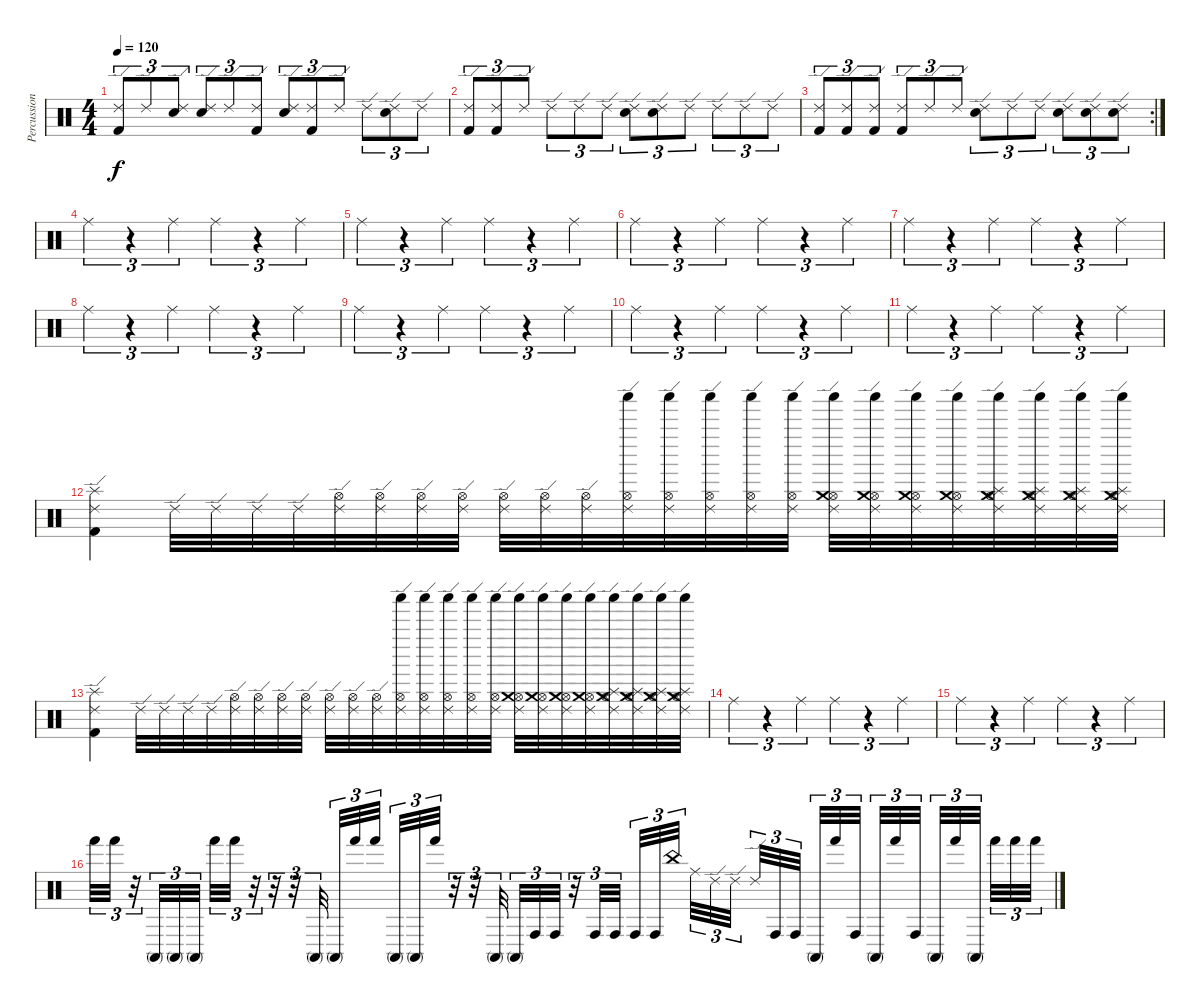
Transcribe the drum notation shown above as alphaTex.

\track ("Percussion" "Percussion") {instrument percussion}
\staff {score}
\articulation defaults
\ts (4 4)
\tempo 120
\clef neutral
\ks c
("Kick (hit) 2" "Ride (edge) 2").8{tu (3 2) dy f} "Ride (edge) 2".8{tu (3 2)} ("Snare (hit) 2" "Ride (edge) 2").8{tu (3 2)} ("Snare (hit) 2" "Ride (edge) 2").8{tu (3 2)} "Ride (edge) 2".8{tu (3 2)} ("Kick (hit) 2" "Ride (edge) 2").8{tu (3 2)} ("Snare (hit) 2" "Ride (edge) 2").8{tu (3 2)} ("Kick (hit) 2" "Ride (edge) 2").8{tu (3 2)} "Ride (edge) 2".8{tu (3 2)} "Ride (edge) 2".8{tu (3 2)} ("Snare (hit) 2" "Ride (edge) 2").8{tu (3 2)} "Ride (edge) 2".8{tu (3 2)} |
("Kick (hit) 2" "Ride (edge) 2").8{tu (3 2)} ("Kick (hit) 2" "Ride (edge) 2").8{tu (3 2)} "Ride (edge) 2".8{tu (3 2)} "Ride (edge) 2".8{tu (3 2)} "Ride (edge) 2".8{tu (3 2)} "Ride (edge) 2".8{tu (3 2)} ("Snare (hit) 2" "Ride (edge) 2").8{tu (3 2)} ("Snare (hit) 2" "Ride (edge) 2").8{tu (3 2)} "Ride (edge) 2".8{tu (3 2)} "Ride (edge) 2".8{tu (3 2)} "Ride (edge) 2".8{tu (3 2)} "Ride (edge) 2".8{tu (3 2)} |
\rc 2
("Kick (hit) 2" "Ride (edge) 2").8{tu (3 2)} ("Kick (hit) 2" "Ride (edge) 2").8{tu (3 2)} ("Kick (hit) 2" "Ride (edge) 2").8{tu (3 2)} ("Kick (hit) 2" "Ride (edge) 2").8{tu (3 2)} "Ride (edge) 2".8{tu (3 2)} "Ride (edge) 2".8{tu (3 2)} ("Snare (hit) 2" "Ride (edge) 2").8{tu (3 2)} "Ride (edge) 2".8{tu (3 2)} "Ride (edge) 2".8{tu (3 2)} ("Snare (hit) 2" "Ride (edge) 2").8{tu (3 2)} ("Snare (hit) 2" "Ride (edge) 2").8{tu (3 2)} ("Snare (hit) 2" "Ride (edge) 2").8{tu (3 2)} |
"Ride (middle)".4{tu (3 2)} r.4{tu (3 2)} "Ride (middle)".4{tu (3 2)} "Ride (middle)".4{tu (3 2)} r.4{tu (3 2)} "Ride (middle)".4{tu (3 2)} |
"Ride (middle)".4{tu (3 2)} r.4{tu (3 2)} "Ride (middle)".4{tu (3 2)} "Ride (middle)".4{tu (3 2)} r.4{tu (3 2)} "Ride (middle)".4{tu (3 2)} |
"Ride (middle)".4{tu (3 2)} r.4{tu (3 2)} "Ride (middle)".4{tu (3 2)} "Ride (middle)".4{tu (3 2)} r.4{tu (3 2)} "Ride (middle)".4{tu (3 2)} |
"Ride (middle)".4{tu (3 2)} r.4{tu (3 2)} "Ride (middle)".4{tu (3 2)} "Ride (middle)".4{tu (3 2)} r.4{tu (3 2)} "Ride (middle)".4{tu (3 2)} |
"Ride (middle)".4{tu (3 2)} r.4{tu (3 2)} "Ride (middle)".4{tu (3 2)} "Ride (middle)".4{tu (3 2)} r.4{tu (3 2)} "Ride (middle)".4{tu (3 2)} |
"Ride (middle)".4{tu (3 2)} r.4{tu (3 2)} "Ride (middle)".4{tu (3 2)} "Ride (middle)".4{tu (3 2)} r.4{tu (3 2)} "Ride (middle)".4{tu (3 2)} |
"Ride (middle)".4{tu (3 2)} r.4{tu (3 2)} "Ride (middle)".4{tu (3 2)} "Ride (middle)".4{tu (3 2)} r.4{tu (3 2)} "Ride (middle)".4{tu (3 2)} |
"Ride (middle)".4{tu (3 2)} r.4{tu (3 2)} "Ride (middle)".4{tu (3 2)} "Ride (middle)".4{tu (3 2)} r.4{tu (3 2)} "Ride (middle)".4{tu (3 2)} |
("Ride (edge) 2" "Splash (hit)" "Kick (hit) 2").4 "Ride (edge) 2".32 "Ride (edge) 2".32 "Ride (edge) 2".32 "Ride (edge) 2".32 ("Hi-Hat (open)" "Ride (edge) 2").32 ("Hi-Hat (open)" "Ride (edge) 2").32 ("Hi-Hat (open)" "Ride (edge) 2").32 ("Hi-Hat (open)" "Ride (edge) 2").32 ("Hi-Hat (open)" "Ride (edge) 2").32 ("Hi-Hat (open)" "Ride (edge) 2").32 ("Hi-Hat (open)" "Ride (edge) 2").32 ("Shaker (hit)" "Hi-Hat (open)" "Ride (edge) 2").32 ("Shaker (hit)" "Hi-Hat (open)" "Ride (edge) 2").32 ("Shaker (hit)" "Hi-Hat (open)" "Ride (edge) 2").32 ("Shaker (hit)" "Hi-Hat (open)" "Ride (edge) 2").32 ("Shaker (hit)" "Hi-Hat (open)" "Ride (edge) 2").32 ("Shaker (hit)" "Hi-Hat (open)" "Ride (edge) 2" "Crash medium (hit)").32 ("Shaker (hit)" "Hi-Hat (open)" "Ride (edge) 2" "Crash medium (hit)").32 ("Shaker (hit)" "Hi-Hat (open)" "Ride (edge) 2" "Crash medium (hit)").32 ("Shaker (hit)" "Hi-Hat (open)" "Ride (edge) 2" "Crash medium (hit)").32 ("Shaker (hit)" "Hi-Hat (open)" "Ride (edge) 2" "Crash medium (hit)" "Splash (hit)").32 ("Shaker (hit)" "Hi-Hat (open)" "Ride (edge) 2" "Crash medium (hit)" "Splash (hit)").32 ("Shaker (hit)" "Hi-Hat (open)" "Ride (edge) 2" "Crash medium (hit)" "Splash (hit)").32 ("Shaker (hit)" "Hi-Hat (open)" "Ride (edge) 2" "Crash medium (hit)" "Splash (hit)").32 |
("Ride (edge) 2" "Splash (hit)" "Kick (hit) 2").4 "Ride (edge) 2".32 "Ride (edge) 2".32 "Ride (edge) 2".32 "Ride (edge) 2".32 ("Hi-Hat (open)" "Ride (edge) 2").32 ("Hi-Hat (open)" "Ride (edge) 2").32 ("Hi-Hat (open)" "Ride (edge) 2").32 ("Hi-Hat (open)" "Ride (edge) 2").32 ("Hi-Hat (open)" "Ride (edge) 2").32 ("Hi-Hat (open)" "Ride (edge) 2").32 ("Hi-Hat (open)" "Ride (edge) 2").32 ("Shaker (hit)" "Hi-Hat (open)" "Ride (edge) 2").32 ("Shaker (hit)" "Hi-Hat (open)" "Ride (edge) 2").32 ("Shaker (hit)" "Hi-Hat (open)" "Ride (edge) 2").32 ("Shaker (hit)" "Hi-Hat (open)" "Ride (edge) 2").32 ("Shaker (hit)" "Hi-Hat (open)" "Ride (edge) 2").32 ("Shaker (hit)" "Hi-Hat (open)" "Ride (edge) 2" "Crash medium (hit)").32 ("Shaker (hit)" "Hi-Hat (open)" "Ride (edge) 2" "Crash medium (hit)").32 ("Shaker (hit)" "Hi-Hat (open)" "Ride (edge) 2" "Crash medium (hit)").32 ("Shaker (hit)" "Hi-Hat (open)" "Ride (edge) 2" "Crash medium (hit)").32 ("Shaker (hit)" "Hi-Hat (open)" "Ride (edge) 2" "Crash medium (hit)" "Splash (hit)").32 ("Shaker (hit)" "Hi-Hat (open)" "Ride (edge) 2" "Crash medium (hit)" "Splash (hit)").32 ("Shaker (hit)" "Hi-Hat (open)" "Ride (edge) 2" "Crash medium (hit)" "Splash (hit)").32 ("Shaker (hit)" "Hi-Hat (open)" "Ride (edge) 2" "Crash medium (hit)" "Splash (hit)").32 |
"Ride (middle)".4{tu (3 2)} r.4{tu (3 2)} "Ride (middle)".4{tu (3 2)} "Ride (middle)".4{tu (3 2)} r.4{tu (3 2)} "Ride (middle)".4{tu (3 2)} |
"Ride (middle)".4{tu (3 2)} r.4{tu (3 2)} "Ride (middle)".4{tu (3 2)} "Ride (middle)".4{tu (3 2)} r.4{tu (3 2)} "Ride (middle)".4{tu (3 2)} |
"Hand (hit)".32{tu (3 2)} "Hand (hit)".32{tu (3 2)} r.32{tu (3 2)} "Conga high (mute)".32{tu (3 2)} "Conga high (mute)".32{tu (3 2)} "Conga high (mute)".32{tu (3 2) beam splitsecondary} "Hand (hit)".32{tu (3 2)} "Hand (hit)".32{tu (3 2)} r.32{tu (3 2)} r.32{tu (3 2)} r.32{tu (3 2)} "Conga high (mute)".32{tu (3 2)} "Conga high (mute)".32{tu (3 2)} "Hand (hit)".32{tu (3 2)} "Hand (hit)".32{tu (3 2) beam splitsecondary} "Conga high (mute)".32{tu (3 2)} "Conga high (mute)".32{tu (3 2)} "Hand (hit)".32{tu (3 2)} r.32{tu (3 2)} r.32{tu (3 2)} "Conga high (mute)".32{tu (3 2) beam splitsecondary} "Conga high (mute)".32{tu (3 2)} "Conga high (hit)".32{tu (3 2)} "Conga high (hit)".32{tu (3 2)} r.32{tu (3 2)} "Conga high (hit)".32{tu (3 2)} "Conga high (hit)".32{tu (3 2) beam splitsecondary} "Conga high (hit)".32{tu (3 2)} "Conga high (hit)".32{tu (3 2)} "China (hit)".32{tu (3 2) beam splitsecondary} "Ride (middle)".32{tu (3 2)} "Ride (edge) 2".32{tu (3 2)} "Ride (edge) 2".32{tu (3 2) beam splitsecondary} "Ride (edge) 2".32{tu (3 2)} "Conga high (hit)".32{tu (3 2)} "Conga high (hit)".32{tu (3 2)} "Conga high (mute)".32{tu (3 2)} "Hand (hit)".32{tu (3 2)} "Conga high (hit)".32{tu (3 2) beam splitsecondary} "Conga high (mute)".32{tu (3 2)} "Hand (hit)".32{tu (3 2)} "Conga high (hit)".32{tu (3 2) beam splitsecondary} "Conga high (mute)".32{tu (3 2)} "Hand (hit)".32{tu (3 2)} "Conga high (mute)".32{tu (3 2) beam splitsecondary} "Hand (hit)".32{tu (3 2)} "Hand (hit)".32{tu (3 2)} "Hand (hit)".32{tu (3 2)}
